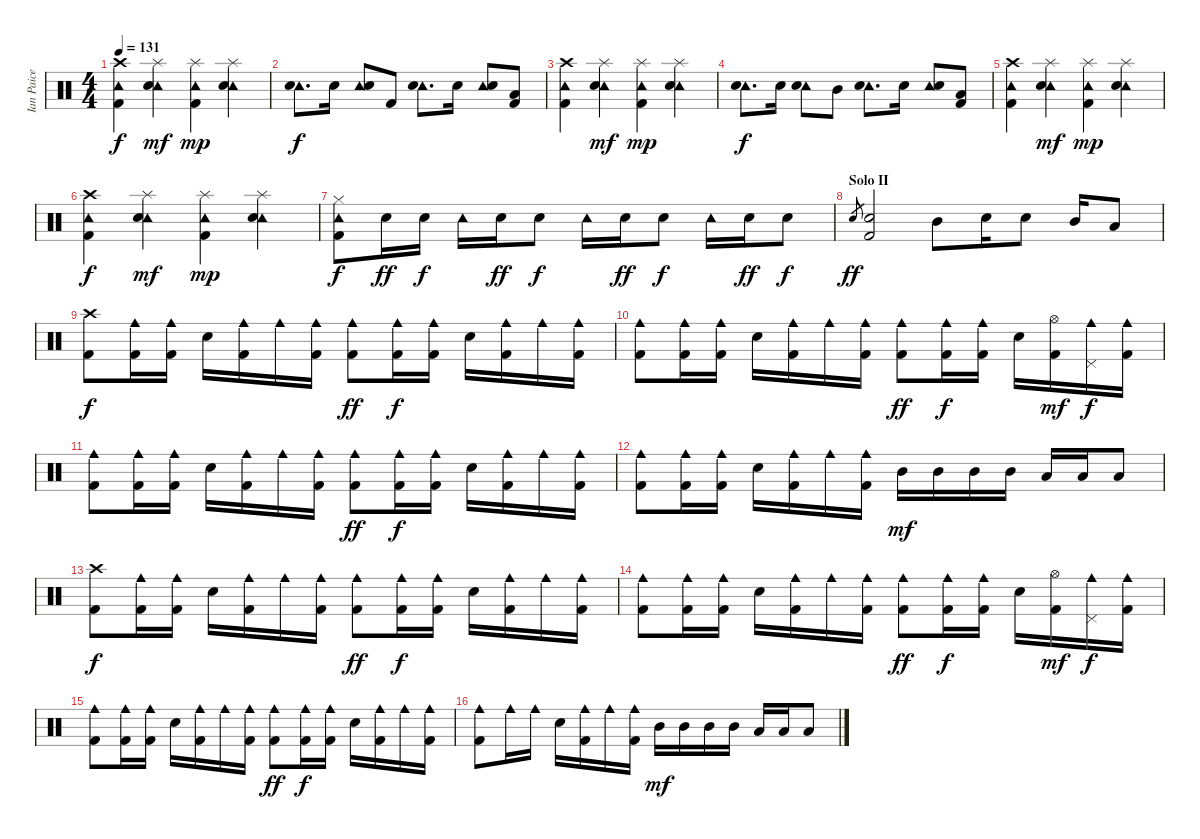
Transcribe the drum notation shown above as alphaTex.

\track ("Ian Paice" "Ian Paice") {instrument percussion}
\staff {score}
\articulation defaults
\ts (4 4)
\tempo 131
\clef neutral
\ks c
("Crash high (hit)" "Tambourine (hit)" "Kick (hit) 2").4{dy f} ("Splash (hit)" "Tambourine (hit)" "Snare (hit) 2").4{dy mf} ("Splash (hit)" "Tambourine (hit)" "Kick (hit) 2").4{dy mp} ("Splash (hit)" "Tambourine (hit)" "Snare (hit) 2").4 |
("Tambourine (hit)" "Snare (hit) 2").8{d dy f} "Snare (hit) 2".16 ("Tambourine (hit)" "Snare (hit) 2").8 "Kick (hit) 2".8 ("Tambourine (hit)" "Snare (hit) 2").8{d} "Snare (hit) 2".16 ("Tambourine (hit)" "Snare (hit) 2").8 ("Low Tom (hit)" "Kick (hit) 2").8 |
("Crash high (hit)" "Tambourine (hit)" "Kick (hit) 2").4 ("Splash (hit)" "Tambourine (hit)" "Snare (hit) 2").4{dy mf} ("Splash (hit)" "Tambourine (hit)" "Kick (hit) 2").4{dy mp} ("Splash (hit)" "Tambourine (hit)" "Snare (hit) 2").4 |
("Tambourine (hit)" "Snare (hit) 2").8{d dy f} "Snare (hit) 2".16 ("Tambourine (hit)" "Snare (hit) 2").8 "Mid Tom (hit)".8 ("Tambourine (hit)" "Snare (hit) 2").8{d} "Snare (hit) 2".16 ("Tambourine (hit)" "Snare (hit) 2").8 ("Low Tom (hit)" "Kick (hit) 2").8 |
("Crash high (hit)" "Tambourine (hit)" "Kick (hit) 2").4 ("Splash (hit)" "Tambourine (hit)" "Snare (hit) 2").4{dy mf} ("Splash (hit)" "Tambourine (hit)" "Kick (hit) 2").4{dy mp} ("Splash (hit)" "Tambourine (hit)" "Snare (hit) 2").4 |
("Crash high (hit)" "Tambourine (hit)" "Kick (hit) 2").4{dy f} ("Splash (hit)" "Tambourine (hit)" "Snare (hit) 2").4{dy mf} ("Splash (hit)" "Tambourine (hit)" "Kick (hit) 2").4{dy mp} ("Splash (hit)" "Tambourine (hit)" "Snare (hit) 2").4 |
("Hi-Hat (closed)" "Tambourine (hit)" "Kick (hit) 2").8{dy f} "Snare (hit) 2".16{dy ff} "Snare (hit) 2".16{dy f} "Tambourine (hit)".16 "Snare (hit) 2".16{dy ff} "Snare (hit) 2".8{dy f} "Tambourine (hit)".16 "Snare (hit) 2".16{dy ff} "Snare (hit) 2".8{dy f} "Tambourine (hit)".16 "Snare (hit) 2".16{dy ff} "Snare (hit) 2".8{dy f} |
\section ("" "Solo II")
"Snare (hit) 2".8{gr dy ff} ("Snare (hit) 2" "Kick (hit) 2").2 "Mid Tom (hit)".8 "Snare (hit) 2".16 "Snare (hit) 2".8 "Mid Tom (hit)".16 "Low Tom (hit)".8 |
("Crash high (hit)" "Kick (hit) 2").8{dy f} ("Cowbell medium (hit)" "Kick (hit) 2").16 ("Cowbell medium (hit)" "Kick (hit) 2").16 "Snare (hit) 2".16 ("Cowbell medium (hit)" "Kick (hit) 2").16 "Cowbell medium (hit)".16 ("Cowbell medium (hit)" "Kick (hit) 2").16 ("Cowbell medium (hit)" "Kick (hit) 2").8{dy ff} ("Cowbell medium (hit)" "Kick (hit) 2").16{dy f} ("Cowbell medium (hit)" "Kick (hit) 2").16 "Snare (hit) 2".16 ("Cowbell medium (hit)" "Kick (hit) 2").16 "Cowbell medium (hit)".16 ("Cowbell medium (hit)" "Kick (hit) 2").16 |
("Cowbell medium (hit)" "Kick (hit) 2").8 ("Cowbell medium (hit)" "Kick (hit) 2").16 ("Cowbell medium (hit)" "Kick (hit) 2").16 "Snare (hit) 2".16 ("Cowbell medium (hit)" "Kick (hit) 2").16 "Cowbell medium (hit)".16 ("Cowbell medium (hit)" "Kick (hit) 2").16 ("Cowbell medium (hit)" "Kick (hit) 2").8{dy ff} ("Cowbell medium (hit)" "Kick (hit) 2").16{dy f} ("Cowbell medium (hit)" "Kick (hit) 2").16 "Snare (hit) 2".16 ("Hi-Hat (open)" "Kick (hit) 2").16{dy mf} ("Pedal Hi-Hat (hit)" "Cowbell medium (hit)").16{dy f} ("Cowbell medium (hit)" "Kick (hit) 2").16 |
("Cowbell medium (hit)" "Kick (hit) 2").8 ("Cowbell medium (hit)" "Kick (hit) 2").16 ("Cowbell medium (hit)" "Kick (hit) 2").16 "Snare (hit) 2".16 ("Cowbell medium (hit)" "Kick (hit) 2").16 "Cowbell medium (hit)".16 ("Cowbell medium (hit)" "Kick (hit) 2").16 ("Cowbell medium (hit)" "Kick (hit) 2").8{dy ff} ("Cowbell medium (hit)" "Kick (hit) 2").16{dy f} ("Cowbell medium (hit)" "Kick (hit) 2").16 "Snare (hit) 2".16 ("Cowbell medium (hit)" "Kick (hit) 2").16 "Cowbell medium (hit)".16 ("Cowbell medium (hit)" "Kick (hit) 2").16 |
("Cowbell medium (hit)" "Kick (hit) 2").8 ("Cowbell medium (hit)" "Kick (hit) 2").16 ("Cowbell medium (hit)" "Kick (hit) 2").16 "Snare (hit) 2".16 ("Cowbell medium (hit)" "Kick (hit) 2").16 "Cowbell medium (hit)".16 ("Cowbell medium (hit)" "Kick (hit) 2").16 "Mid Tom (hit)".16{dy mf} "Mid Tom (hit)".16 "Mid Tom (hit)".16 "Mid Tom (hit)".16 "Low Tom (hit)".16 "Low Tom (hit)".16 "Low Tom (hit)".8 |
("Crash high (hit)" "Kick (hit) 2").8{dy f} ("Cowbell medium (hit)" "Kick (hit) 2").16 ("Cowbell medium (hit)" "Kick (hit) 2").16 "Snare (hit) 2".16 ("Cowbell medium (hit)" "Kick (hit) 2").16 "Cowbell medium (hit)".16 ("Cowbell medium (hit)" "Kick (hit) 2").16 ("Cowbell medium (hit)" "Kick (hit) 2").8{dy ff} ("Cowbell medium (hit)" "Kick (hit) 2").16{dy f} ("Cowbell medium (hit)" "Kick (hit) 2").16 "Snare (hit) 2".16 ("Cowbell medium (hit)" "Kick (hit) 2").16 "Cowbell medium (hit)".16 ("Cowbell medium (hit)" "Kick (hit) 2").16 |
("Cowbell medium (hit)" "Kick (hit) 2").8 ("Cowbell medium (hit)" "Kick (hit) 2").16 ("Cowbell medium (hit)" "Kick (hit) 2").16 "Snare (hit) 2".16 ("Cowbell medium (hit)" "Kick (hit) 2").16 "Cowbell medium (hit)".16 ("Cowbell medium (hit)" "Kick (hit) 2").16 ("Cowbell medium (hit)" "Kick (hit) 2").8{dy ff} ("Cowbell medium (hit)" "Kick (hit) 2").16{dy f} ("Cowbell medium (hit)" "Kick (hit) 2").16 "Snare (hit) 2".16 ("Hi-Hat (open)" "Kick (hit) 2").16{dy mf} ("Pedal Hi-Hat (hit)" "Cowbell medium (hit)").16{dy f} ("Cowbell medium (hit)" "Kick (hit) 2").16 |
("Cowbell medium (hit)" "Kick (hit) 2").8 ("Cowbell medium (hit)" "Kick (hit) 2").16 ("Cowbell medium (hit)" "Kick (hit) 2").16 "Snare (hit) 2".16 ("Cowbell medium (hit)" "Kick (hit) 2").16 "Cowbell medium (hit)".16 ("Cowbell medium (hit)" "Kick (hit) 2").16 ("Cowbell medium (hit)" "Kick (hit) 2").8{dy ff} ("Cowbell medium (hit)" "Kick (hit) 2").16{dy f} ("Cowbell medium (hit)" "Kick (hit) 2").16 "Snare (hit) 2".16 ("Cowbell medium (hit)" "Kick (hit) 2").16 "Cowbell medium (hit)".16 ("Cowbell medium (hit)" "Kick (hit) 2").16 |
("Cowbell medium (hit)" "Kick (hit) 2").8 "Cowbell medium (hit)".16 "Cowbell medium (hit)".16 "Snare (hit) 2".16 ("Cowbell medium (hit)" "Kick (hit) 2").16 "Cowbell medium (hit)".16 ("Cowbell medium (hit)" "Kick (hit) 2").16 "Mid Tom (hit)".16{dy mf} "Mid Tom (hit)".16 "Mid Tom (hit)".16 "Mid Tom (hit)".16 "Low Tom (hit)".16 "Low Tom (hit)".16 "Low Tom (hit)".8
